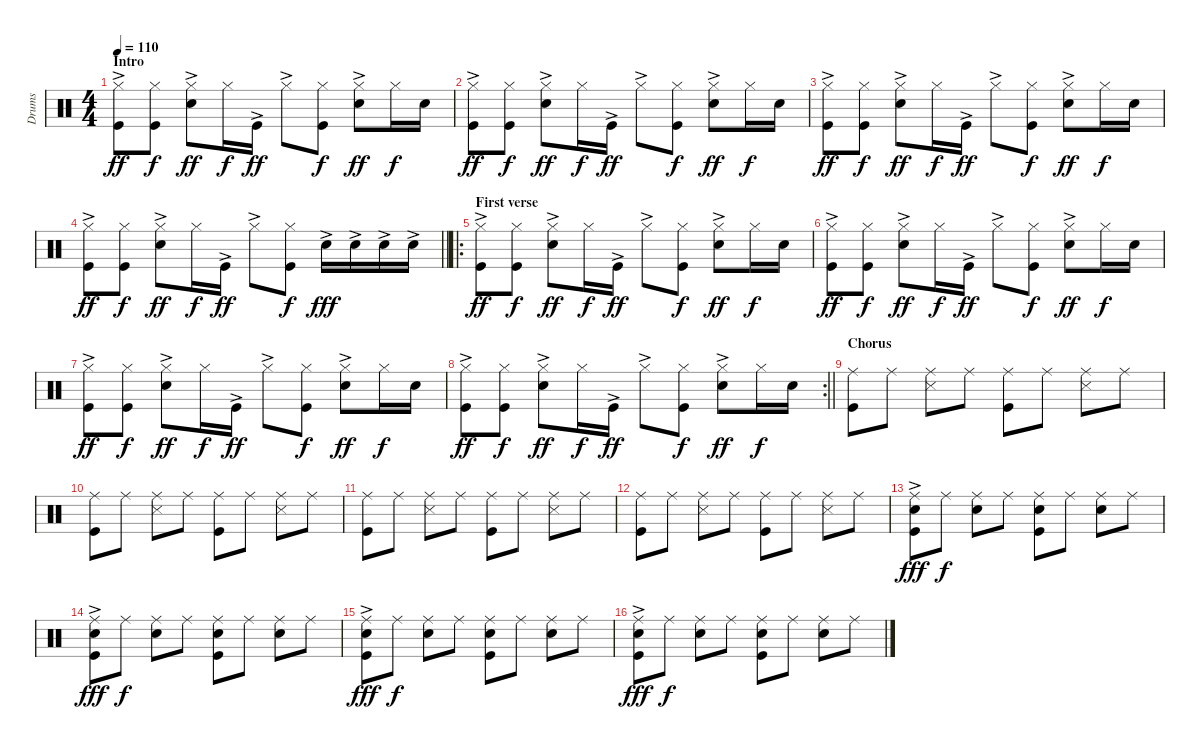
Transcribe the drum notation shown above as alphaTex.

\track ("Drums" "Drums") {instrument percussion}
\staff {score}
\articulation defaults
\ts (4 4)
\section ("" "Intro")
\tempo 110
\clef neutral
\ks c
("Hi-Hat (closed)"{ac} "Kick (hit)"{ac}).8{dy ff} ("Hi-Hat (closed)" "Kick (hit)").8{dy f} ("Hi-Hat (closed)"{ac} "Snare (hit) 2").8{dy ff} "Hi-Hat (closed)".16{dy f} "Kick (hit)"{ac}.16{dy ff} "Hi-Hat (closed)"{ac}.8 ("Hi-Hat (closed)" "Kick (hit)").8{dy f} ("Hi-Hat (closed)"{ac} "Snare (hit) 2").8{dy ff} "Hi-Hat (closed)".16{dy f} "Snare (hit) 2".16 |
("Hi-Hat (closed)"{ac} "Kick (hit)"{ac}).8{dy ff} ("Hi-Hat (closed)" "Kick (hit)").8{dy f} ("Hi-Hat (closed)"{ac} "Snare (hit) 2").8{dy ff} "Hi-Hat (closed)".16{dy f} "Kick (hit)"{ac}.16{dy ff} "Hi-Hat (closed)"{ac}.8 ("Hi-Hat (closed)" "Kick (hit)").8{dy f} ("Hi-Hat (closed)"{ac} "Snare (hit) 2").8{dy ff} "Hi-Hat (closed)".16{dy f} "Snare (hit) 2".16 |
("Hi-Hat (closed)"{ac} "Kick (hit)"{ac}).8{dy ff} ("Hi-Hat (closed)" "Kick (hit)").8{dy f} ("Hi-Hat (closed)"{ac} "Snare (hit) 2").8{dy ff} "Hi-Hat (closed)".16{dy f} "Kick (hit)"{ac}.16{dy ff} "Hi-Hat (closed)"{ac}.8 ("Hi-Hat (closed)" "Kick (hit)").8{dy f} ("Hi-Hat (closed)"{ac} "Snare (hit) 2").8{dy ff} "Hi-Hat (closed)".16{dy f} "Snare (hit) 2".16 |
\barLineRight lightlight
("Hi-Hat (closed)"{ac} "Kick (hit)"{ac}).8{dy ff} ("Hi-Hat (closed)" "Kick (hit)").8{dy f} ("Hi-Hat (closed)"{ac} "Snare (hit) 2").8{dy ff} "Hi-Hat (closed)".16{dy f} "Kick (hit)"{ac}.16{dy ff} "Hi-Hat (closed)"{ac}.8 ("Hi-Hat (closed)" "Kick (hit)").8{dy f} "Snare (hit) 2"{ac}.16{dy fff} "Snare (hit) 2"{ac}.16 "Snare (hit) 2"{ac}.16 "Snare (hit) 2"{ac}.16 |
\ro
\section ("" "First verse")
("Hi-Hat (closed)"{ac} "Kick (hit)"{ac}).8{dy ff} ("Hi-Hat (closed)" "Kick (hit)").8{dy f} ("Hi-Hat (closed)"{ac} "Snare (hit) 2").8{dy ff} "Hi-Hat (closed)".16{dy f} "Kick (hit)"{ac}.16{dy ff} "Hi-Hat (closed)"{ac}.8 ("Hi-Hat (closed)" "Kick (hit)").8{dy f} ("Hi-Hat (closed)"{ac} "Snare (hit) 2").8{dy ff} "Hi-Hat (closed)".16{dy f} "Snare (hit) 2".16 |
("Hi-Hat (closed)"{ac} "Kick (hit)"{ac}).8{dy ff} ("Hi-Hat (closed)" "Kick (hit)").8{dy f} ("Hi-Hat (closed)"{ac} "Snare (hit) 2").8{dy ff} "Hi-Hat (closed)".16{dy f} "Kick (hit)"{ac}.16{dy ff} "Hi-Hat (closed)"{ac}.8 ("Hi-Hat (closed)" "Kick (hit)").8{dy f} ("Hi-Hat (closed)"{ac} "Snare (hit) 2").8{dy ff} "Hi-Hat (closed)".16{dy f} "Snare (hit) 2".16 |
("Hi-Hat (closed)"{ac} "Kick (hit)"{ac}).8{dy ff} ("Hi-Hat (closed)" "Kick (hit)").8{dy f} ("Hi-Hat (closed)"{ac} "Snare (hit) 2").8{dy ff} "Hi-Hat (closed)".16{dy f} "Kick (hit)"{ac}.16{dy ff} "Hi-Hat (closed)"{ac}.8 ("Hi-Hat (closed)" "Kick (hit)").8{dy f} ("Hi-Hat (closed)"{ac} "Snare (hit) 2").8{dy ff} "Hi-Hat (closed)".16{dy f} "Snare (hit) 2".16 |
\rc 2
\barLineRight lightlight
("Hi-Hat (closed)"{ac} "Kick (hit)"{ac}).8{dy ff} ("Hi-Hat (closed)" "Kick (hit)").8{dy f} ("Hi-Hat (closed)"{ac} "Snare (hit) 2").8{dy ff} "Hi-Hat (closed)".16{dy f} "Kick (hit)"{ac}.16{dy ff} "Hi-Hat (closed)"{ac}.8 ("Hi-Hat (closed)" "Kick (hit)").8{dy f} ("Hi-Hat (closed)"{ac} "Snare (hit) 2").8{dy ff} "Hi-Hat (closed)".16{dy f} "Snare (hit) 2".16 |
\section ("" "Chorus")
("Ride (middle)" "Kick (hit)").8 "Ride (middle)".8 ("Ride (middle)" "Snare (side stick) 3").8 "Ride (middle)".8 ("Ride (middle)" "Kick (hit)").8 "Ride (middle)".8 ("Ride (middle)" "Snare (side stick) 3").8 "Ride (middle)".8 |
("Ride (middle)" "Kick (hit)").8 "Ride (middle)".8 ("Ride (middle)" "Snare (side stick) 3").8 "Ride (middle)".8 ("Ride (middle)" "Kick (hit)").8 "Ride (middle)".8 ("Ride (middle)" "Snare (side stick) 3").8 "Ride (middle)".8 |
("Ride (middle)" "Kick (hit)").8 "Ride (middle)".8 ("Ride (middle)" "Snare (side stick) 3").8 "Ride (middle)".8 ("Ride (middle)" "Kick (hit)").8 "Ride (middle)".8 ("Ride (middle)" "Snare (side stick) 3").8 "Ride (middle)".8 |
("Ride (middle)" "Kick (hit)").8 "Ride (middle)".8 ("Ride (middle)" "Snare (side stick) 3").8 "Ride (middle)".8 ("Ride (middle)" "Kick (hit)").8 "Ride (middle)".8 ("Ride (middle)" "Snare (side stick) 3").8 "Ride (middle)".8 |
("Ride (middle)"{ac} "Snare (hit) 2" "Kick (hit)").8{dy fff} "Ride (middle)".8{dy f} ("Ride (middle)" "Snare (hit) 2").8 "Ride (middle)".8 ("Ride (middle)" "Snare (hit) 2" "Kick (hit)").8 "Ride (middle)".8 ("Ride (middle)" "Snare (hit) 2").8 "Ride (middle)".8 |
("Ride (middle)"{ac} "Snare (hit) 2" "Kick (hit)").8{dy fff} "Ride (middle)".8{dy f} ("Ride (middle)" "Snare (hit) 2").8 "Ride (middle)".8 ("Ride (middle)" "Snare (hit) 2" "Kick (hit)").8 "Ride (middle)".8 ("Ride (middle)" "Snare (hit) 2").8 "Ride (middle)".8 |
("Ride (middle)"{ac} "Snare (hit) 2" "Kick (hit)").8{dy fff} "Ride (middle)".8{dy f} ("Ride (middle)" "Snare (hit) 2").8 "Ride (middle)".8 ("Ride (middle)" "Snare (hit) 2" "Kick (hit)").8 "Ride (middle)".8 ("Ride (middle)" "Snare (hit) 2").8 "Ride (middle)".8 |
("Ride (middle)"{ac} "Snare (hit) 2" "Kick (hit)").8{dy fff} "Ride (middle)".8{dy f} ("Ride (middle)" "Snare (hit) 2").8 "Ride (middle)".8 ("Ride (middle)" "Snare (hit) 2" "Kick (hit)").8 "Ride (middle)".8 ("Ride (middle)" "Snare (hit) 2").8 "Ride (middle)".8
